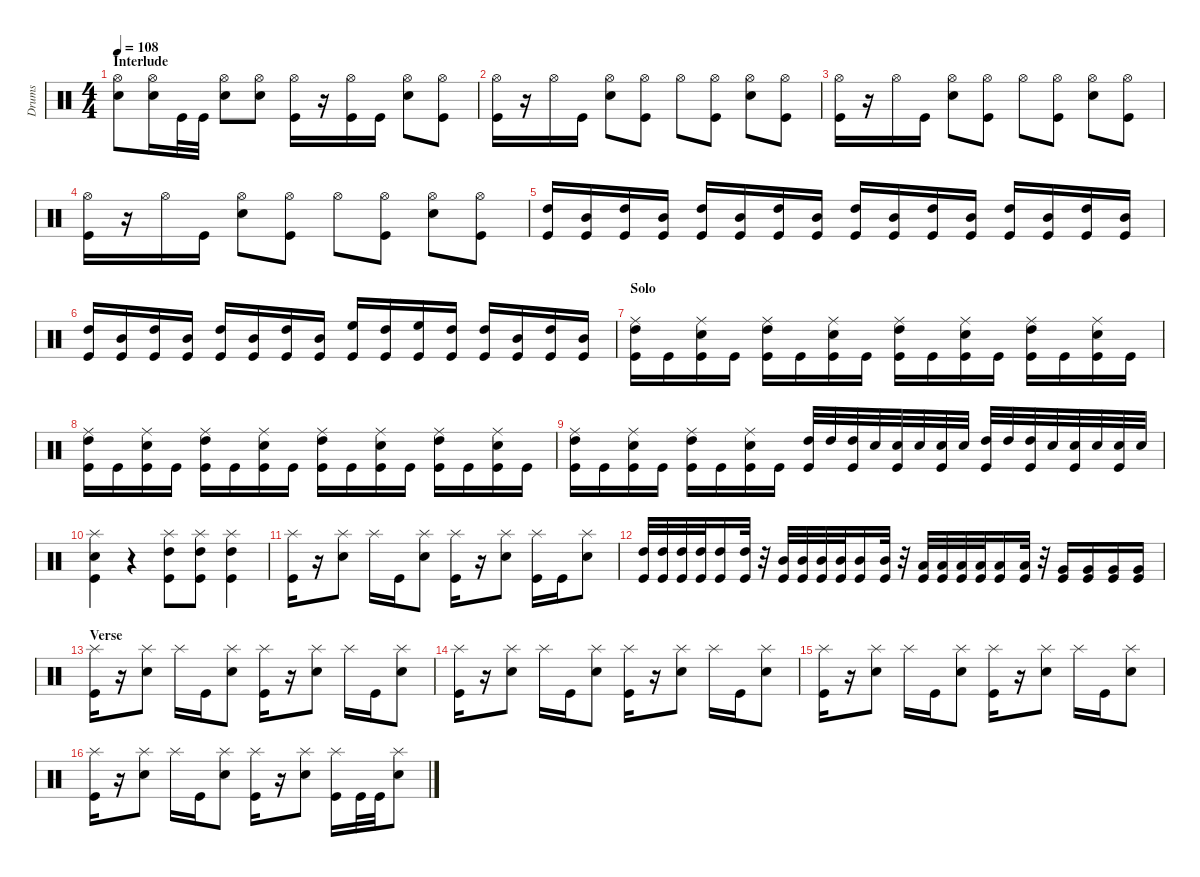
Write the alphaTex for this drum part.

\defaultSystemsLayout 4
\hideDynamics
\bracketExtendMode groupsimilarinstruments
\otherSystemsTrackNameOrientation horizontal
\chordDiagramsInScore
\track ("Drumkit" "Drums") {instrument percussion}
\staff {score}
\articulation defaults
\ts (4 4)
\section ("" "Interlude")
\tempo 108
\clef neutral
\ks c
("Snare (hit) 2" "Hi-Hat (open)").8{dy mf} ("Snare (hit) 2" "Hi-Hat (open)").16 "Kick (hit)".32 "Kick (hit)".32 ("Snare (hit) 2" "Hi-Hat (open)").8 ("Snare (hit) 2" "Hi-Hat (open)").8 ("Kick (hit)" "Hi-Hat (open)").16 r.16 ("Kick (hit)" "Hi-Hat (open)").16 "Kick (hit)".16 ("Snare (hit) 2" "Hi-Hat (open)").8 ("Kick (hit)" "Hi-Hat (open)").8 |
("Kick (hit)" "Hi-Hat (open)").16 r.16 "Hi-Hat (open)".16 "Kick (hit)".16 ("Snare (hit) 2" "Hi-Hat (open)").8 ("Kick (hit)" "Hi-Hat (open)").8 "Hi-Hat (open)".8 ("Kick (hit)" "Hi-Hat (open)").8 ("Snare (hit) 2" "Hi-Hat (open)").8 ("Kick (hit)" "Hi-Hat (open)").8 |
("Kick (hit)" "Hi-Hat (open)").16 r.16 "Hi-Hat (open)".16 "Kick (hit)".16 ("Snare (hit) 2" "Hi-Hat (open)").8 ("Kick (hit)" "Hi-Hat (open)").8 "Hi-Hat (open)".8 ("Kick (hit)" "Hi-Hat (open)").8 ("Snare (hit) 2" "Hi-Hat (open)").8 ("Kick (hit)" "Hi-Hat (open)").8 |
("Kick (hit)" "Hi-Hat (open)").16 r.16 "Hi-Hat (open)".16 "Kick (hit)".16 ("Snare (hit) 2" "Hi-Hat (open)").8 ("Kick (hit)" "Hi-Hat (open)").8 "Hi-Hat (open)".8 ("Kick (hit)" "Hi-Hat (open)").8 ("Snare (hit) 2" "Hi-Hat (open)").8 ("Kick (hit)" "Hi-Hat (open)").8 |
("Kick (hit)" "High Tom (hit)").16 ("Kick (hit)" "Mid Tom (hit)").16 ("Kick (hit)" "High Tom (hit)").16 ("Kick (hit)" "Mid Tom (hit)").16 ("Kick (hit)" "High Tom (hit)").16 ("Kick (hit)" "Mid Tom (hit)").16 ("Kick (hit)" "High Tom (hit)").16 ("Kick (hit)" "Mid Tom (hit)").16 ("Kick (hit)" "High Tom (hit)").16 ("Kick (hit)" "Mid Tom (hit)").16 ("Kick (hit)" "High Tom (hit)").16 ("Kick (hit)" "Mid Tom (hit)").16 ("Kick (hit)" "High Tom (hit)").16 ("Kick (hit)" "Mid Tom (hit)").16 ("Kick (hit)" "High Tom (hit)").16 ("Kick (hit)" "Mid Tom (hit)").16 |
("Kick (hit)" "High Tom (hit)").16 ("Kick (hit)" "Mid Tom (hit)").16 ("Kick (hit)" "High Tom (hit)").16 ("Kick (hit)" "Mid Tom (hit)").16 ("Kick (hit)" "High Tom (hit)").16 ("Kick (hit)" "Mid Tom (hit)").16 ("Kick (hit)" "High Tom (hit)").16 ("Kick (hit)" "Mid Tom (hit)").16 ("Kick (hit)" "High Floor Tom (hit)").16 ("Kick (hit)" "High Tom (hit)").16 ("Kick (hit)" "High Floor Tom (hit)").16 ("Kick (hit)" "High Tom (hit)").16 ("Kick (hit)" "High Tom (hit)").16 ("Kick (hit)" "Mid Tom (hit)").16 ("Kick (hit)" "High Tom (hit)").16 ("Kick (hit)" "Mid Tom (hit)").16 |
\section ("" "Solo")
("Kick (hit)" "Ride (middle)" "High Tom (hit)").16 "Kick (hit)".16 ("Kick (hit)" "Snare (hit) 2" "Ride (middle)").16 "Kick (hit)".16 ("Kick (hit)" "Ride (middle)" "High Tom (hit)").16 "Kick (hit)".16 ("Kick (hit)" "Snare (hit) 2" "Ride (middle)").16 "Kick (hit)".16 ("Kick (hit)" "Ride (middle)" "High Tom (hit)").16 "Kick (hit)".16 ("Kick (hit)" "Snare (hit) 2" "Ride (middle)").16 "Kick (hit)".16 ("Kick (hit)" "Ride (middle)" "High Tom (hit)").16 "Kick (hit)".16 ("Kick (hit)" "Snare (hit) 2" "Ride (middle)").16 "Kick (hit)".16 |
("Kick (hit)" "Ride (middle)" "High Tom (hit)").16 "Kick (hit)".16 ("Kick (hit)" "Snare (hit) 2" "Ride (middle)").16 "Kick (hit)".16 ("Kick (hit)" "Ride (middle)" "High Tom (hit)").16 "Kick (hit)".16 ("Kick (hit)" "Snare (hit) 2" "Ride (middle)").16 "Kick (hit)".16 ("Kick (hit)" "Ride (middle)" "High Tom (hit)").16 "Kick (hit)".16 ("Kick (hit)" "Snare (hit) 2" "Ride (middle)").16 "Kick (hit)".16 ("Kick (hit)" "Ride (middle)" "High Tom (hit)").16 "Kick (hit)".16 ("Kick (hit)" "Snare (hit) 2" "Ride (middle)").16 "Kick (hit)".16 |
("Kick (hit)" "Ride (middle)" "High Tom (hit)").16 "Kick (hit)".16 ("Kick (hit)" "Snare (hit) 2" "Ride (middle)").16 "Kick (hit)".16 ("Kick (hit)" "Ride (middle)" "High Tom (hit)").16 "Kick (hit)".16 ("Kick (hit)" "Snare (hit) 2" "Ride (middle)").16 "Kick (hit)".16 ("High Tom (hit)" "Kick (hit)").32 "High Tom (hit)".32 ("High Tom (hit)" "Kick (hit)").32 "Snare (hit) 2".32 ("Snare (hit) 2" "Kick (hit)").32 "Snare (hit) 2".32 ("Snare (hit) 2" "Kick (hit)").32 "Snare (hit) 2".32 ("High Tom (hit)" "Kick (hit)").32 "High Tom (hit)".32 ("High Tom (hit)" "Kick (hit)").32 "Snare (hit) 2".32 ("Snare (hit) 2" "Kick (hit)").32 "Snare (hit) 2".32 ("Snare (hit) 2" "Kick (hit)").32 "Snare (hit) 2".32 |
("Kick (hit)" "Splash (hit)" "Snare (hit) 2").4 r.4 ("Kick (hit)" "Splash (hit)" "High Tom (hit)").8 ("Kick (hit)" "Splash (hit)" "High Tom (hit)").8 ("Kick (hit)" "Splash (hit)" "High Tom (hit)").4 |
("Kick (hit)" "Splash (hit)").16 r.16 ("Snare (hit) 2" "Splash (hit)").8 "Splash (hit)".16 "Kick (hit)".16 ("Snare (hit) 2" "Splash (hit)").8 ("Kick (hit)" "Splash (hit)").16 r.16 ("Snare (hit) 2" "Splash (hit)").8 ("Splash (hit)" "Kick (hit)").16 "Kick (hit)".16 ("Snare (hit) 2" "Splash (hit)").8 |
("Kick (hit)" "High Tom (hit)").32 ("Kick (hit)" "High Tom (hit)").32 ("Kick (hit)" "High Tom (hit)").32 ("Kick (hit)" "High Tom (hit)").32 ("Kick (hit)" "High Tom (hit)").16 ("Kick (hit)" "High Tom (hit)").32 r.32 ("Kick (hit)" "Mid Tom (hit)").32 ("Kick (hit)" "Mid Tom (hit)").32 ("Kick (hit)" "Mid Tom (hit)").32 ("Kick (hit)" "Mid Tom (hit)").32 ("Kick (hit)" "Mid Tom (hit)").16 ("Kick (hit)" "Mid Tom (hit)").32 r.32 ("Kick (hit)" "Low Tom (hit)").32 ("Kick (hit)" "Low Tom (hit)").32 ("Kick (hit)" "Low Tom (hit)").32 ("Kick (hit)" "Low Tom (hit)").32 ("Kick (hit)" "Low Tom (hit)").16 ("Kick (hit)" "Low Tom (hit)").32 r.32 ("Kick (hit)" "Very Low Tom (hit)").16 ("Kick (hit)" "Very Low Tom (hit)").16 ("Kick (hit)" "Very Low Tom (hit)").16 ("Kick (hit)" "Very Low Tom (hit)").16 |
\section ("" "Verse")
("Kick (hit)" "Splash (hit)").16 r.16 ("Snare (hit) 2" "Splash (hit)").8 "Splash (hit)".16 "Kick (hit)".16 ("Snare (hit) 2" "Splash (hit)").8 ("Kick (hit)" "Splash (hit)").16 r.16 ("Snare (hit) 2" "Splash (hit)").8 "Splash (hit)".16 "Kick (hit)".16 ("Snare (hit) 2" "Splash (hit)").8 |
("Kick (hit)" "Splash (hit)").16 r.16 ("Snare (hit) 2" "Splash (hit)").8 "Splash (hit)".16 "Kick (hit)".16 ("Snare (hit) 2" "Splash (hit)").8 ("Kick (hit)" "Splash (hit)").16 r.16 ("Snare (hit) 2" "Splash (hit)").8 "Splash (hit)".16 "Kick (hit)".16 ("Snare (hit) 2" "Splash (hit)").8 |
("Kick (hit)" "Splash (hit)").16 r.16 ("Snare (hit) 2" "Splash (hit)").8 "Splash (hit)".16 "Kick (hit)".16 ("Snare (hit) 2" "Splash (hit)").8 ("Kick (hit)" "Splash (hit)").16 r.16 ("Snare (hit) 2" "Splash (hit)").8 "Splash (hit)".16 "Kick (hit)".16 ("Snare (hit) 2" "Splash (hit)").8 |
("Kick (hit)" "Splash (hit)").16 r.16 ("Snare (hit) 2" "Splash (hit)").8 "Splash (hit)".16 "Kick (hit)".16 ("Snare (hit) 2" "Splash (hit)").8 ("Kick (hit)" "Splash (hit)").16 r.16 ("Snare (hit) 2" "Splash (hit)").8 ("Splash (hit)" "Kick (hit)").16 "Kick (hit)".32 "Kick (hit)".32 ("Snare (hit) 2" "Splash (hit)").8
